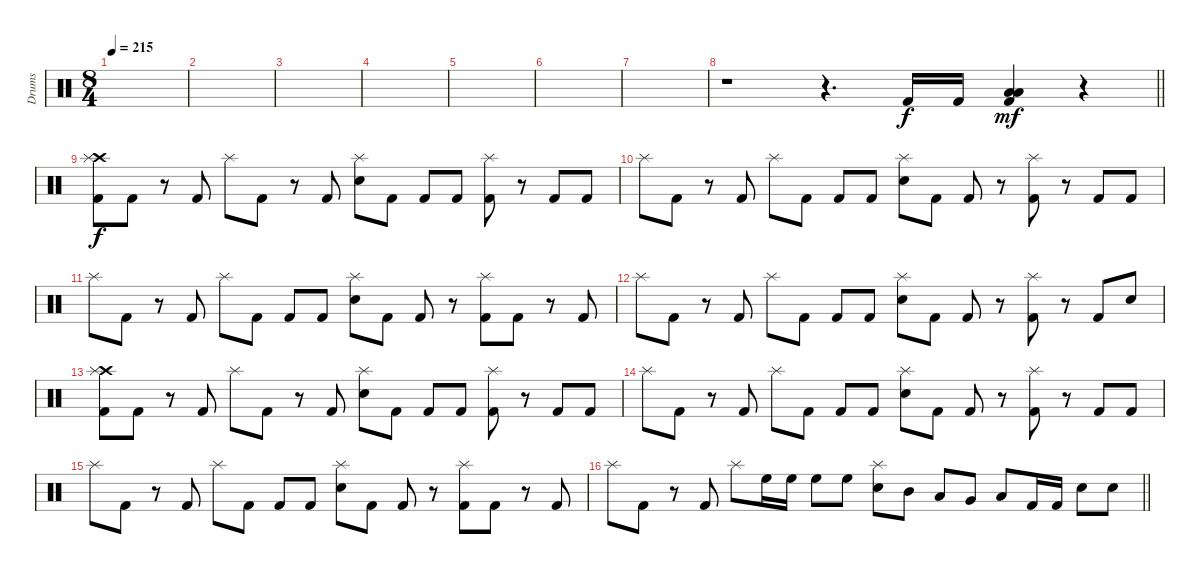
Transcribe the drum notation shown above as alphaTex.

\track ("Drums" "Drums") {instrument percussion}
\staff {score}
\articulation defaults
\ts (8 4)
\tempo 215
\clef neutral
\ks c
|
|
|
|
|
|
|
\barLineRight lightlight
r.1 r.4{d} "Kick (hit) 2".16 "Kick (hit) 2".16 ("Low Tom (hit)" "Low Floor Tom (hit)" "Kick (hit) 2").4{dy mf} r.4 |
\section ("" "")
("Crash high (hit)" "Splash (hit)" "Kick (hit) 2").8{dy f} "Kick (hit) 2".8 r.8 "Kick (hit) 2".8 "Splash (hit)".8 "Kick (hit) 2".8 r.8 "Kick (hit) 2".8 ("Splash (hit)" "Electric Snare (hit)").8 "Kick (hit) 2".8 "Kick (hit) 2".8 "Kick (hit) 2".8 ("Splash (hit)" "Kick (hit) 2").8 r.8 "Kick (hit) 2".8 "Kick (hit) 2".8 |
"Splash (hit)".8 "Kick (hit) 2".8 r.8 "Kick (hit) 2".8 "Splash (hit)".8 "Kick (hit) 2".8 "Kick (hit) 2".8 "Kick (hit) 2".8 ("Splash (hit)" "Electric Snare (hit)").8 "Kick (hit) 2".8 "Kick (hit) 2".8 r.8 ("Splash (hit)" "Kick (hit) 2").8 r.8 "Kick (hit) 2".8 "Kick (hit) 2".8 |
"Splash (hit)".8 "Kick (hit) 2".8 r.8 "Kick (hit) 2".8 "Splash (hit)".8 "Kick (hit) 2".8 "Kick (hit) 2".8 "Kick (hit) 2".8 ("Splash (hit)" "Electric Snare (hit)").8 "Kick (hit) 2".8 "Kick (hit) 2".8 r.8 ("Splash (hit)" "Kick (hit) 2").8 "Kick (hit) 2".8 r.8 "Kick (hit) 2".8 |
"Splash (hit)".8 "Kick (hit) 2".8 r.8 "Kick (hit) 2".8 "Splash (hit)".8 "Kick (hit) 2".8 "Kick (hit) 2".8 "Kick (hit) 2".8 ("Splash (hit)" "Electric Snare (hit)").8 "Kick (hit) 2".8 "Kick (hit) 2".8 r.8 ("Splash (hit)" "Kick (hit) 2").8 r.8 "Kick (hit) 2".8 "Electric Snare (hit)".8 |
("Crash high (hit)" "Splash (hit)" "Kick (hit) 2").8 "Kick (hit) 2".8 r.8 "Kick (hit) 2".8 "Splash (hit)".8 "Kick (hit) 2".8 r.8 "Kick (hit) 2".8 ("Splash (hit)" "Electric Snare (hit)").8 "Kick (hit) 2".8 "Kick (hit) 2".8 "Kick (hit) 2".8 ("Splash (hit)" "Kick (hit) 2").8 r.8 "Kick (hit) 2".8 "Kick (hit) 2".8 |
"Splash (hit)".8 "Kick (hit) 2".8 r.8 "Kick (hit) 2".8 "Splash (hit)".8 "Kick (hit) 2".8 "Kick (hit) 2".8 "Kick (hit) 2".8 ("Splash (hit)" "Electric Snare (hit)").8 "Kick (hit) 2".8 "Kick (hit) 2".8 r.8 ("Splash (hit)" "Kick (hit) 2").8 r.8 "Kick (hit) 2".8 "Kick (hit) 2".8 |
"Splash (hit)".8 "Kick (hit) 2".8 r.8 "Kick (hit) 2".8 "Splash (hit)".8 "Kick (hit) 2".8 "Kick (hit) 2".8 "Kick (hit) 2".8 ("Splash (hit)" "Electric Snare (hit)").8 "Kick (hit) 2".8 "Kick (hit) 2".8 r.8 ("Splash (hit)" "Kick (hit) 2").8 "Kick (hit) 2".8 r.8 "Kick (hit) 2".8 |
\barLineRight lightlight "Splash (hit)".8 "Kick (hit) 2".8
r.8 "Kick (hit) 2".8 "Splash (hit)".8 "High Floor Tom (hit)".16 "High Floor Tom (hit)".16 "High Floor Tom (hit)".8 "High Floor Tom (hit)".8 ("Splash (hit)" "Electric Snare (hit)").8 "Mid Tom (hit)".8 "Low Tom (hit)".8 "Very Low Tom (hit)".8 "Low Floor Tom (hit)".8 "Kick (hit) 2".16 "Kick (hit) 2".16 "Electric Snare (hit)".8 "Electric Snare (hit)".8
